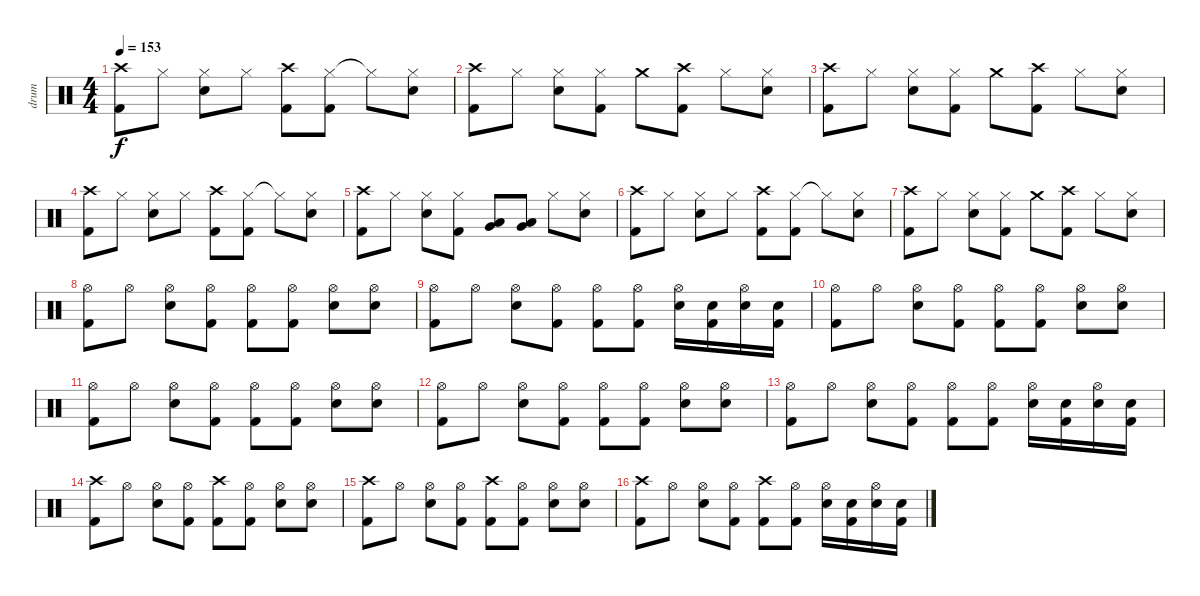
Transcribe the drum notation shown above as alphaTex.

\track ("drum" "drum") {instrument percussion}
\staff {score}
\articulation defaults
\ts (4 4)
\tempo 153
\clef neutral
\ks aminor
("Crash high (hit)" "Kick (hit) 2").8{dy f} "Hi-Hat (closed)".8 ("Hi-Hat (closed)" "Snare (hit) 2").8 "Hi-Hat (closed)".8 ("Crash high (hit)" "Kick (hit) 2").8 ("Hi-Hat (closed)" "Kick (hit) 2").8 "Hi-Hat (closed)"{t}.8 ("Hi-Hat (closed)" "Snare (hit) 2").8 |
("Crash high (hit)" "Kick (hit) 2").8 "Hi-Hat (closed)".8 ("Hi-Hat (closed)" "Snare (hit) 2").8 ("Hi-Hat (closed)" "Kick (hit) 2").8 "Crash medium (hit)".8 ("Crash high (hit)" "Kick (hit) 2").8 "Hi-Hat (closed)".8 ("Hi-Hat (closed)" "Snare (hit) 2").8 |
("Crash high (hit)" "Kick (hit) 2").8 "Hi-Hat (closed)".8 ("Hi-Hat (closed)" "Snare (hit) 2").8 ("Hi-Hat (closed)" "Kick (hit) 2").8 "Crash medium (hit)".8 ("Crash high (hit)" "Kick (hit) 2").8 "Hi-Hat (closed)".8 ("Hi-Hat (closed)" "Snare (hit) 2").8 |
("Crash high (hit)" "Kick (hit) 2").8 "Hi-Hat (closed)".8 ("Hi-Hat (closed)" "Snare (hit) 2").8 "Hi-Hat (closed)".8 ("Crash high (hit)" "Kick (hit) 2").8 ("Hi-Hat (closed)" "Kick (hit) 2").8 "Hi-Hat (closed)"{t}.8 ("Hi-Hat (closed)" "Snare (hit) 2").8 |
("Crash high (hit)" "Kick (hit) 2").8 "Hi-Hat (closed)".8 ("Hi-Hat (closed)" "Snare (hit) 2").8 ("Hi-Hat (closed)" "Kick (hit) 2").8 ("Very Low Tom (hit)" "Low Floor Tom (hit)").8 ("Very Low Tom (hit)" "Low Floor Tom (hit)").8 "Hi-Hat (closed)".8 ("Hi-Hat (closed)" "Snare (hit) 2").8 |
("Crash high (hit)" "Kick (hit) 2").8 "Hi-Hat (closed)".8 ("Hi-Hat (closed)" "Snare (hit) 2").8 "Hi-Hat (closed)".8 ("Crash high (hit)" "Kick (hit) 2").8 ("Hi-Hat (closed)" "Kick (hit) 2").8 "Hi-Hat (closed)"{t}.8 ("Hi-Hat (closed)" "Snare (hit) 2").8 |
("Crash high (hit)" "Kick (hit) 2").8 "Hi-Hat (closed)".8 ("Hi-Hat (closed)" "Snare (hit) 2").8 ("Hi-Hat (closed)" "Kick (hit) 2").8 "Crash medium (hit)".8 ("Crash high (hit)" "Kick (hit) 2").8 "Hi-Hat (closed)".8 ("Hi-Hat (closed)" "Snare (hit) 2").8 |
("Hi-Hat (open)" "Kick (hit) 2").8 "Hi-Hat (open)".8 ("Hi-Hat (open)" "Snare (hit) 2").8 ("Hi-Hat (open)" "Kick (hit) 2").8 ("Hi-Hat (open)" "Kick (hit) 2").8 ("Hi-Hat (open)" "Kick (hit) 2").8 ("Hi-Hat (open)" "Snare (hit) 2").8 ("Hi-Hat (open)" "Snare (hit) 2").8 |
("Hi-Hat (open)" "Kick (hit) 2").8 "Hi-Hat (open)".8 ("Hi-Hat (open)" "Snare (hit) 2").8 ("Hi-Hat (open)" "Kick (hit) 2").8 ("Hi-Hat (open)" "Kick (hit) 2").8 ("Hi-Hat (open)" "Kick (hit) 2").8 ("Hi-Hat (open)" "Snare (hit) 2").16 ("Snare (hit) 2" "Kick (hit) 2").16 ("Hi-Hat (open)" "Snare (hit) 2").16 ("Snare (hit) 2" "Kick (hit) 2").16 |
("Hi-Hat (open)" "Kick (hit) 2").8 "Hi-Hat (open)".8 ("Hi-Hat (open)" "Snare (hit) 2").8 ("Hi-Hat (open)" "Kick (hit) 2").8 ("Hi-Hat (open)" "Kick (hit) 2").8 ("Hi-Hat (open)" "Kick (hit) 2").8 ("Hi-Hat (open)" "Snare (hit) 2").8 ("Hi-Hat (open)" "Snare (hit) 2").8 |
("Hi-Hat (open)" "Kick (hit) 2").8 "Hi-Hat (open)".8 ("Hi-Hat (open)" "Snare (hit) 2").8 ("Hi-Hat (open)" "Kick (hit) 2").8 ("Hi-Hat (open)" "Kick (hit) 2").8 ("Hi-Hat (open)" "Kick (hit) 2").8 ("Hi-Hat (open)" "Snare (hit) 2").8 ("Hi-Hat (open)" "Snare (hit) 2").8 |
("Hi-Hat (open)" "Kick (hit) 2").8 "Hi-Hat (open)".8 ("Hi-Hat (open)" "Snare (hit) 2").8 ("Hi-Hat (open)" "Kick (hit) 2").8 ("Hi-Hat (open)" "Kick (hit) 2").8 ("Hi-Hat (open)" "Kick (hit) 2").8 ("Hi-Hat (open)" "Snare (hit) 2").8 ("Hi-Hat (open)" "Snare (hit) 2").8 |
("Hi-Hat (open)" "Kick (hit) 2").8 "Hi-Hat (open)".8 ("Hi-Hat (open)" "Snare (hit) 2").8 ("Hi-Hat (open)" "Kick (hit) 2").8 ("Hi-Hat (open)" "Kick (hit) 2").8 ("Hi-Hat (open)" "Kick (hit) 2").8 ("Hi-Hat (open)" "Snare (hit) 2").16 ("Snare (hit) 2" "Kick (hit) 2").16 ("Hi-Hat (open)" "Snare (hit) 2").16 ("Snare (hit) 2" "Kick (hit) 2").16 |
("Crash high (hit)" "Kick (hit) 2").8 "Hi-Hat (open)".8 ("Hi-Hat (open)" "Snare (hit) 2").8 ("Hi-Hat (open)" "Kick (hit) 2").8 ("Crash high (hit)" "Kick (hit) 2").8 ("Hi-Hat (open)" "Kick (hit) 2").8 ("Hi-Hat (open)" "Snare (hit) 2").8 ("Hi-Hat (open)" "Snare (hit) 2").8 |
("Crash high (hit)" "Kick (hit) 2").8 "Hi-Hat (open)".8 ("Hi-Hat (open)" "Snare (hit) 2").8 ("Hi-Hat (open)" "Kick (hit) 2").8 ("Crash high (hit)" "Kick (hit) 2").8 ("Hi-Hat (open)" "Kick (hit) 2").8 ("Hi-Hat (open)" "Snare (hit) 2").8 ("Hi-Hat (open)" "Snare (hit) 2").8 |
("Crash high (hit)" "Kick (hit) 2").8 "Hi-Hat (open)".8 ("Hi-Hat (open)" "Snare (hit) 2").8 ("Hi-Hat (open)" "Kick (hit) 2").8 ("Crash high (hit)" "Kick (hit) 2").8 ("Hi-Hat (open)" "Kick (hit) 2").8 ("Hi-Hat (open)" "Snare (hit) 2").16 ("Snare (hit) 2" "Kick (hit) 2").16 ("Hi-Hat (open)" "Snare (hit) 2").16 ("Snare (hit) 2" "Kick (hit) 2").16
